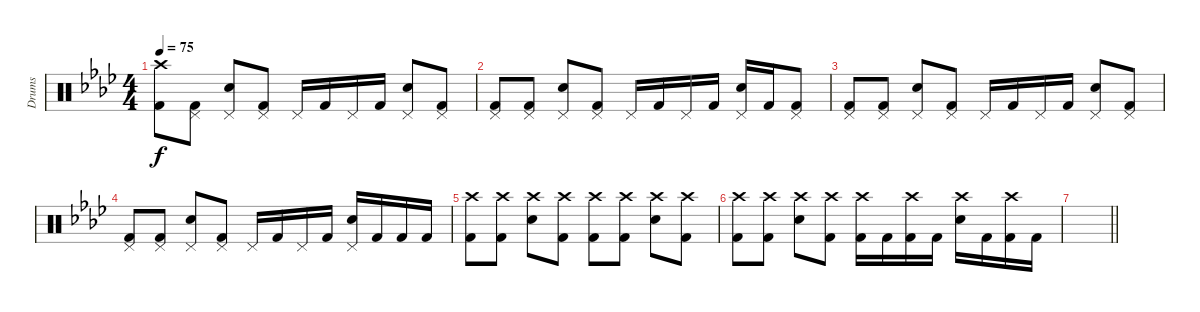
\track ("Drums" "Drums") {instrument percussion}
\staff {score}
\articulation defaults
\ts (4 4)
\tempo 75
\clef neutral
\ks ab
("Crash high (hit)" "Kick (hit) 2").8{dy f} ("Pedal Hi-Hat (hit)" "Kick (hit) 2").8 ("Pedal Hi-Hat (hit)" "Snare (hit) 2").8 ("Pedal Hi-Hat (hit)" "Kick (hit) 2").8 "Pedal Hi-Hat (hit)".16 "Kick (hit) 2".16 "Pedal Hi-Hat (hit)".16 "Kick (hit) 2".16 ("Pedal Hi-Hat (hit)" "Snare (hit) 2").8 ("Pedal Hi-Hat (hit)" "Kick (hit) 2").8 |
("Pedal Hi-Hat (hit)" "Kick (hit) 2").8 ("Pedal Hi-Hat (hit)" "Kick (hit) 2").8 ("Pedal Hi-Hat (hit)" "Snare (hit) 2").8 ("Pedal Hi-Hat (hit)" "Kick (hit) 2").8 "Pedal Hi-Hat (hit)".16 "Kick (hit) 2".16 "Pedal Hi-Hat (hit)".16 "Kick (hit) 2".16 ("Pedal Hi-Hat (hit)" "Snare (hit) 2").16 "Kick (hit) 2".16 ("Pedal Hi-Hat (hit)" "Kick (hit) 2").8 |
("Pedal Hi-Hat (hit)" "Kick (hit) 2").8 ("Pedal Hi-Hat (hit)" "Kick (hit) 2").8 ("Pedal Hi-Hat (hit)" "Snare (hit) 2").8 ("Pedal Hi-Hat (hit)" "Kick (hit) 2").8 "Pedal Hi-Hat (hit)".16 "Kick (hit) 2".16 "Pedal Hi-Hat (hit)".16 "Kick (hit) 2".16 ("Pedal Hi-Hat (hit)" "Snare (hit) 2").8 ("Pedal Hi-Hat (hit)" "Kick (hit) 2").8 |
("Pedal Hi-Hat (hit)" "Kick (hit) 2").8 ("Pedal Hi-Hat (hit)" "Kick (hit) 2").8 ("Pedal Hi-Hat (hit)" "Snare (hit) 2").8 ("Pedal Hi-Hat (hit)" "Kick (hit) 2").8 "Pedal Hi-Hat (hit)".16 "Kick (hit) 2".16 "Pedal Hi-Hat (hit)".16 "Kick (hit) 2".16 ("Pedal Hi-Hat (hit)" "Snare (hit) 2").16 "Kick (hit) 2".16 "Kick (hit) 2".16 "Kick (hit) 2".16 |
("Crash high (hit)" "Kick (hit) 2").8 ("Crash high (hit)" "Kick (hit) 2").8 ("Crash high (hit)" "Snare (hit) 2").8 ("Crash high (hit)" "Kick (hit) 2").8 ("Crash high (hit)" "Kick (hit) 2").8 ("Crash high (hit)" "Kick (hit) 2").8 ("Crash high (hit)" "Snare (hit) 2").8 ("Crash high (hit)" "Kick (hit) 2").8 |
("Crash high (hit)" "Kick (hit) 2").8 ("Crash high (hit)" "Kick (hit) 2").8 ("Crash high (hit)" "Snare (hit) 2").8 ("Crash high (hit)" "Kick (hit) 2").8 ("Crash high (hit)" "Kick (hit) 2").16 "Kick (hit) 2".16 ("Crash high (hit)" "Kick (hit) 2").16 "Kick (hit) 2".16 ("Crash high (hit)" "Snare (hit) 2").16 "Kick (hit) 2".16 ("Crash high (hit)" "Kick (hit) 2").16 "Kick (hit) 2".16 |
\barLineRight lightlight
